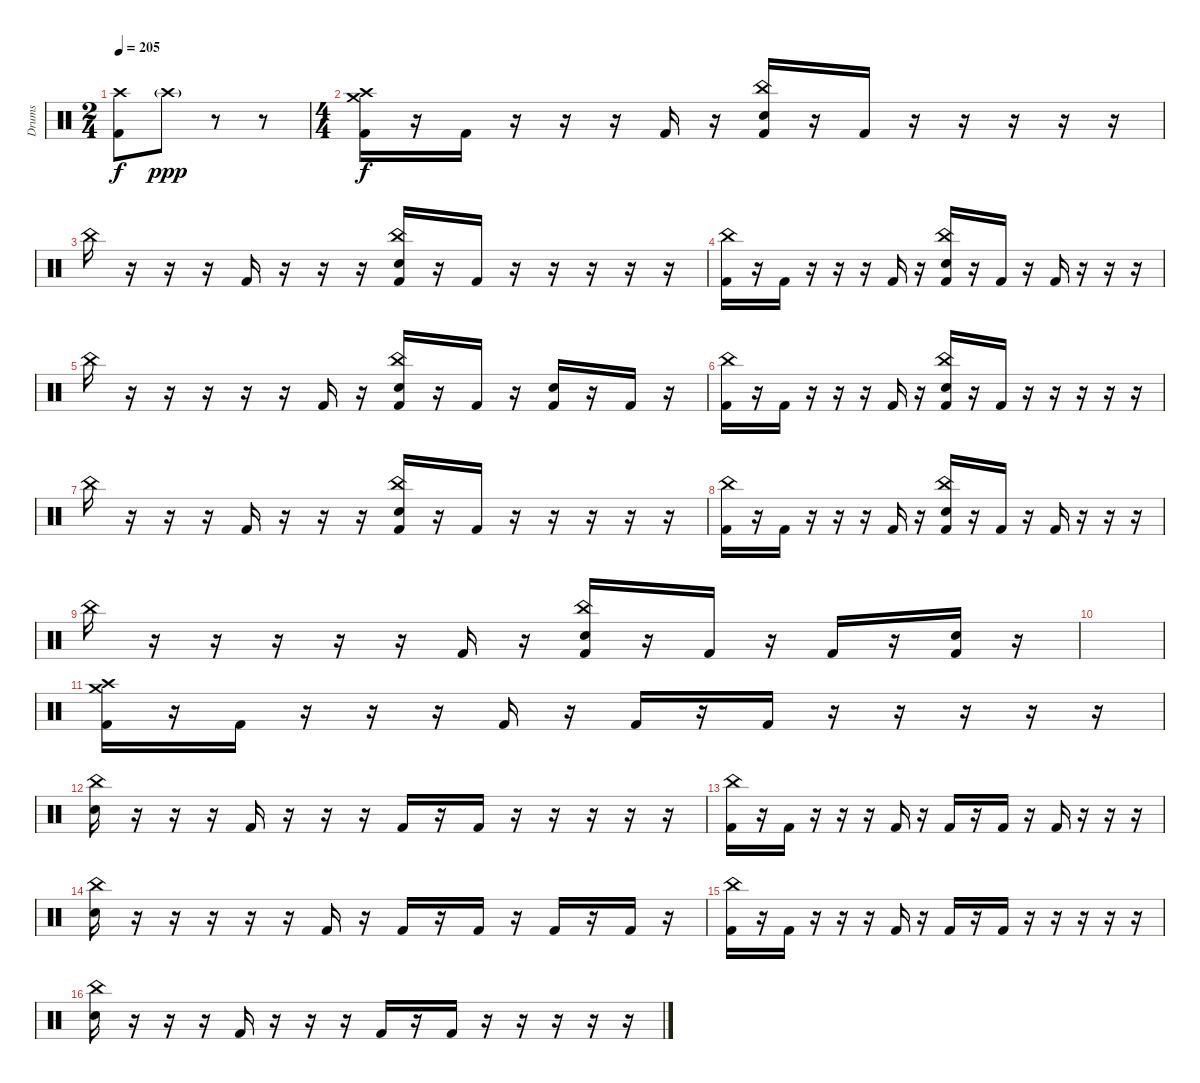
\track ("Drums" "Drums") {instrument percussion}
\staff {score}
\articulation defaults
\ts (2 4)
\tempo 205
\clef neutral
\ks c
("Crash high (hit)" "Kick (hit) 2").8{dy f beam merge} "Crash high (hit)"{g}.8{dy ppp beam merge} r.8 r.8 |
\ts (4 4)
("Crash high (hit)" "Crash medium (hit)" "Kick (hit) 2").16{dy f} r.16 "Kick (hit) 2".16 r.16 r.16 r.16 "Kick (hit) 2".16 r.16 ("China (hit)" "Electric Snare (hit)" "Kick (hit) 2").16 r.16 "Kick (hit) 2".16 r.16 r.16 r.16 r.16 r.16 |
"China (hit)".16 r.16 r.16 r.16 "Kick (hit) 2".16 r.16 r.16 r.16 ("China (hit)" "Electric Snare (hit)" "Kick (hit) 2").16 r.16 "Kick (hit) 2".16 r.16 r.16 r.16 r.16 r.16 |
("China (hit)" "Kick (hit) 2").16 r.16 "Kick (hit) 2".16 r.16 r.16 r.16 "Kick (hit) 2".16 r.16 ("China (hit)" "Electric Snare (hit)" "Kick (hit) 2").16 r.16 "Kick (hit) 2".16 r.16 "Kick (hit) 2".16 r.16 r.16 r.16 |
"China (hit)".16 r.16 r.16 r.16 r.16 r.16 "Kick (hit) 2".16 r.16 ("China (hit)" "Electric Snare (hit)" "Kick (hit) 2").16 r.16 "Kick (hit) 2".16 r.16 ("Electric Snare (hit)" "Kick (hit) 2").16 r.16 "Kick (hit) 2".16 r.16 |
("China (hit)" "Kick (hit) 2").16 r.16 "Kick (hit) 2".16 r.16 r.16 r.16 "Kick (hit) 2".16 r.16 ("China (hit)" "Electric Snare (hit)" "Kick (hit) 2").16 r.16 "Kick (hit) 2".16 r.16 r.16 r.16 r.16 r.16 |
"China (hit)".16 r.16 r.16 r.16 "Kick (hit) 2".16 r.16 r.16 r.16 ("China (hit)" "Electric Snare (hit)" "Kick (hit) 2").16 r.16 "Kick (hit) 2".16 r.16 r.16 r.16 r.16 r.16 |
("China (hit)" "Kick (hit) 2").16 r.16 "Kick (hit) 2".16 r.16 r.16 r.16 "Kick (hit) 2".16 r.16 ("China (hit)" "Electric Snare (hit)" "Kick (hit) 2").16 r.16 "Kick (hit) 2".16 r.16 "Kick (hit) 2".16 r.16 r.16 r.16 |
"China (hit)".16 r.16 r.16 r.16 r.16 r.16 "Kick (hit) 2".16 r.16 ("China (hit)" "Electric Snare (hit)" "Kick (hit) 2").16 r.16 "Kick (hit) 2".16 r.16 "Kick (hit) 2".16 r.16 ("Electric Snare (hit)" "Kick (hit) 2").16 r.16 |
|
("Crash high (hit)" "Crash medium (hit)" "Kick (hit) 2").16 r.16 "Kick (hit) 2".16 r.16 r.16 r.16 "Kick (hit) 2".16 r.16 "Kick (hit) 2".16 r.16 "Kick (hit) 2".16 r.16 r.16 r.16 r.16 r.16 |
("China (hit)" "Electric Snare (hit)").16 r.16 r.16 r.16 "Kick (hit) 2".16 r.16 r.16 r.16 "Kick (hit) 2".16 r.16 "Kick (hit) 2".16 r.16 r.16 r.16 r.16 r.16 |
("China (hit)" "Kick (hit) 2").16 r.16 "Kick (hit) 2".16 r.16 r.16 r.16 "Kick (hit) 2".16 r.16 "Kick (hit) 2".16 r.16 "Kick (hit) 2".16 r.16 "Kick (hit) 2".16 r.16 r.16 r.16 |
("China (hit)" "Electric Snare (hit)").16 r.16 r.16 r.16 r.16 r.16 "Kick (hit) 2".16 r.16 "Kick (hit) 2".16 r.16 "Kick (hit) 2".16 r.16 "Kick (hit) 2".16 r.16 "Kick (hit) 2".16 r.16 |
("China (hit)" "Kick (hit) 2").16 r.16 "Kick (hit) 2".16 r.16 r.16 r.16 "Kick (hit) 2".16 r.16 "Kick (hit) 2".16 r.16 "Kick (hit) 2".16 r.16 r.16 r.16 r.16 r.16 |
("China (hit)" "Electric Snare (hit)").16 r.16 r.16 r.16 "Kick (hit) 2".16 r.16 r.16 r.16 "Kick (hit) 2".16 r.16 "Kick (hit) 2".16 r.16 r.16 r.16 r.16 r.16
